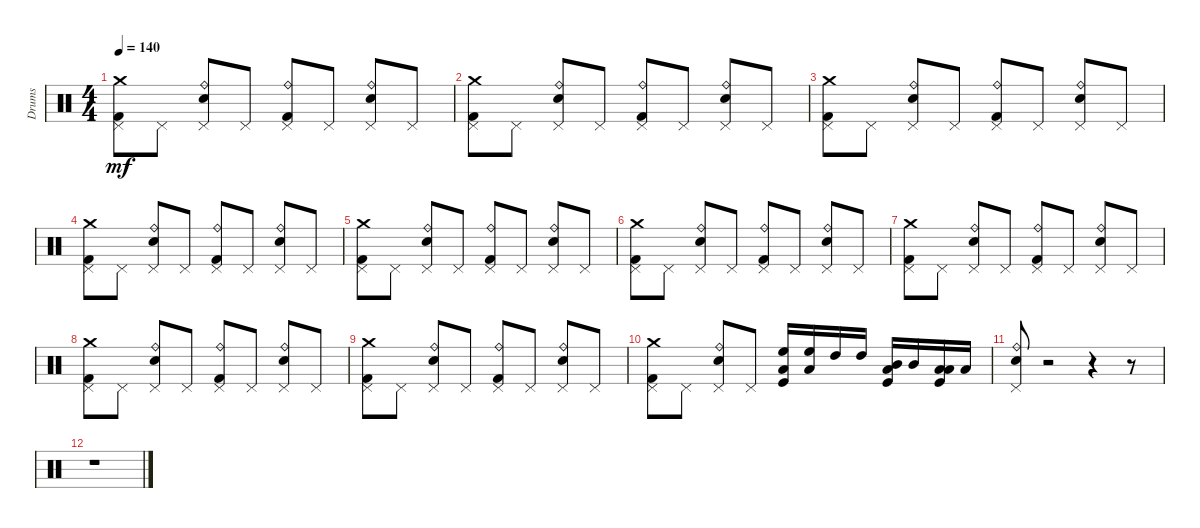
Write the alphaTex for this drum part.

\track ("Drums" "Drums") {instrument percussion}
\staff {score}
\articulation defaults
\ts (4 4)
\tempo 140
\clef neutral
\ks c
("Crash medium (hit)" "Pedal Hi-Hat (hit)" "Kick (hit) 2").8{dy mf} "Pedal Hi-Hat (hit)".8 ("Ride (bell)" "Pedal Hi-Hat (hit)" "Snare (hit) 2").8 "Pedal Hi-Hat (hit)".8 ("Ride (bell)" "Pedal Hi-Hat (hit)" "Kick (hit) 2").8 "Pedal Hi-Hat (hit)".8 ("Ride (bell)" "Pedal Hi-Hat (hit)" "Snare (hit) 2").8 "Pedal Hi-Hat (hit)".8 |
("Crash medium (hit)" "Pedal Hi-Hat (hit)" "Kick (hit) 2").8 "Pedal Hi-Hat (hit)".8 ("Ride (bell)" "Pedal Hi-Hat (hit)" "Snare (hit) 2").8 "Pedal Hi-Hat (hit)".8 ("Ride (bell)" "Pedal Hi-Hat (hit)" "Kick (hit) 2").8 "Pedal Hi-Hat (hit)".8 ("Ride (bell)" "Pedal Hi-Hat (hit)" "Snare (hit) 2").8 "Pedal Hi-Hat (hit)".8 |
("Crash medium (hit)" "Pedal Hi-Hat (hit)" "Kick (hit) 2").8 "Pedal Hi-Hat (hit)".8 ("Ride (bell)" "Pedal Hi-Hat (hit)" "Snare (hit) 2").8 "Pedal Hi-Hat (hit)".8 ("Ride (bell)" "Pedal Hi-Hat (hit)" "Kick (hit) 2").8 "Pedal Hi-Hat (hit)".8 ("Ride (bell)" "Pedal Hi-Hat (hit)" "Snare (hit) 2").8 "Pedal Hi-Hat (hit)".8 |
("Crash medium (hit)" "Pedal Hi-Hat (hit)" "Kick (hit) 2").8 "Pedal Hi-Hat (hit)".8 ("Ride (bell)" "Pedal Hi-Hat (hit)" "Snare (hit) 2").8 "Pedal Hi-Hat (hit)".8 ("Ride (bell)" "Pedal Hi-Hat (hit)" "Kick (hit) 2").8 "Pedal Hi-Hat (hit)".8 ("Ride (bell)" "Pedal Hi-Hat (hit)" "Snare (hit) 2").8 "Pedal Hi-Hat (hit)".8 |
("Crash medium (hit)" "Pedal Hi-Hat (hit)" "Kick (hit) 2").8 "Pedal Hi-Hat (hit)".8 ("Ride (bell)" "Pedal Hi-Hat (hit)" "Snare (hit) 2").8 "Pedal Hi-Hat (hit)".8 ("Ride (bell)" "Pedal Hi-Hat (hit)" "Kick (hit) 2").8 "Pedal Hi-Hat (hit)".8 ("Ride (bell)" "Pedal Hi-Hat (hit)" "Snare (hit) 2").8 "Pedal Hi-Hat (hit)".8 |
("Crash medium (hit)" "Pedal Hi-Hat (hit)" "Kick (hit) 2").8 "Pedal Hi-Hat (hit)".8 ("Ride (bell)" "Pedal Hi-Hat (hit)" "Snare (hit) 2").8 "Pedal Hi-Hat (hit)".8 ("Ride (bell)" "Pedal Hi-Hat (hit)" "Kick (hit) 2").8 "Pedal Hi-Hat (hit)".8 ("Ride (bell)" "Pedal Hi-Hat (hit)" "Snare (hit) 2").8 "Pedal Hi-Hat (hit)".8 |
("Crash medium (hit)" "Pedal Hi-Hat (hit)" "Kick (hit) 2").8 "Pedal Hi-Hat (hit)".8 ("Ride (bell)" "Pedal Hi-Hat (hit)" "Snare (hit) 2").8 "Pedal Hi-Hat (hit)".8 ("Ride (bell)" "Pedal Hi-Hat (hit)" "Kick (hit) 2").8 "Pedal Hi-Hat (hit)".8 ("Ride (bell)" "Pedal Hi-Hat (hit)" "Snare (hit) 2").8 "Pedal Hi-Hat (hit)".8 |
("Crash medium (hit)" "Pedal Hi-Hat (hit)" "Kick (hit) 2").8 "Pedal Hi-Hat (hit)".8 ("Ride (bell)" "Pedal Hi-Hat (hit)" "Snare (hit) 2").8 "Pedal Hi-Hat (hit)".8 ("Ride (bell)" "Pedal Hi-Hat (hit)" "Kick (hit) 2").8 "Pedal Hi-Hat (hit)".8 ("Ride (bell)" "Pedal Hi-Hat (hit)" "Snare (hit) 2").8 "Pedal Hi-Hat (hit)".8 |
("Crash medium (hit)" "Pedal Hi-Hat (hit)" "Kick (hit) 2").8 "Pedal Hi-Hat (hit)".8 ("Ride (bell)" "Pedal Hi-Hat (hit)" "Snare (hit) 2").8 "Pedal Hi-Hat (hit)".8 ("Ride (bell)" "Pedal Hi-Hat (hit)" "Kick (hit) 2").8 "Pedal Hi-Hat (hit)".8 ("Ride (bell)" "Pedal Hi-Hat (hit)" "Snare (hit) 2").8 "Pedal Hi-Hat (hit)".8 |
("Crash medium (hit)" "Pedal Hi-Hat (hit)" "Kick (hit) 2").8 "Pedal Hi-Hat (hit)".8 ("Ride (bell)" "Pedal Hi-Hat (hit)" "Snare (hit) 2").8 "Pedal Hi-Hat (hit)".8 ("High Floor Tom (hit)" "Low Floor Tom (hit)" "Kick (hit)").16 ("High Floor Tom (hit)" "Low Floor Tom (hit)").16 "High Tom (hit)".16 "High Tom (hit)".16 ("Mid Tom (hit)" "Low Floor Tom (hit)" "Kick (hit)").16 "Mid Tom (hit)".16 ("Low Tom (hit)" "Low Floor Tom (hit)" "Kick (hit)").16 "Low Tom (hit)".16 |
("Ride (bell)" "Pedal Hi-Hat (hit)" "Snare (hit) 2").8 r.2 r.4 r.8 |
r.1
